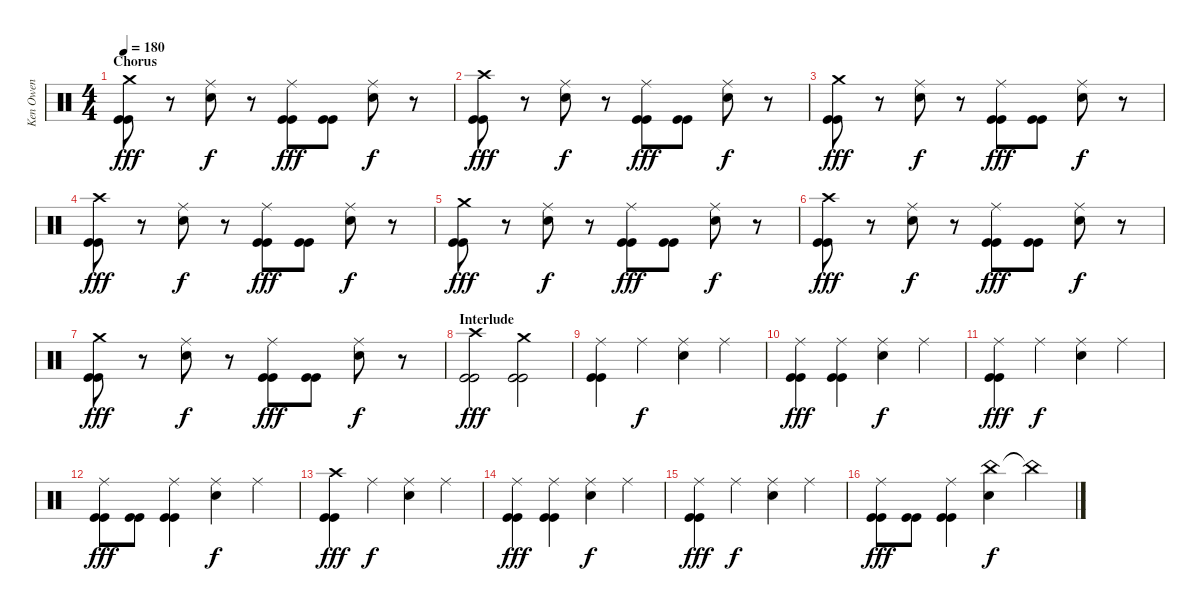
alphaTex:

\track ("Ken Owen" "Ken Owen") {instrument percussion}
\staff {score}
\articulation defaults
\ts (4 4)
\section ("" "Chorus")
\tempo 180
\clef neutral
\ks c
("Crash medium (hit)" "Kick (hit)" "Kick (hit)").8{dy fff} r.8 ("Ride (middle)" "Snare (hit) 2").8{dy f} r.8 ("Ride (middle)" "Kick (hit)" "Kick (hit)").8{dy fff} ("Kick (hit)" "Kick (hit)").8 ("Ride (middle)" "Snare (hit) 2").8{dy f} r.8 |
("Crash high (hit)" "Kick (hit)" "Kick (hit)").8{dy fff} r.8 ("Ride (middle)" "Snare (hit) 2").8{dy f} r.8 ("Ride (middle)" "Kick (hit)" "Kick (hit)").8{dy fff} ("Kick (hit)" "Kick (hit)").8 ("Ride (middle)" "Snare (hit) 2").8{dy f} r.8 |
("Crash medium (hit)" "Kick (hit)" "Kick (hit)").8{dy fff} r.8 ("Ride (middle)" "Snare (hit) 2").8{dy f} r.8 ("Ride (middle)" "Kick (hit)" "Kick (hit)").8{dy fff} ("Kick (hit)" "Kick (hit)").8 ("Ride (middle)" "Snare (hit) 2").8{dy f} r.8 |
("Crash high (hit)" "Kick (hit)" "Kick (hit)").8{dy fff} r.8 ("Ride (middle)" "Snare (hit) 2").8{dy f} r.8 ("Ride (middle)" "Kick (hit)" "Kick (hit)").8{dy fff} ("Kick (hit)" "Kick (hit)").8 ("Ride (middle)" "Snare (hit) 2").8{dy f} r.8 |
("Crash medium (hit)" "Kick (hit)" "Kick (hit)").8{dy fff} r.8 ("Ride (middle)" "Snare (hit) 2").8{dy f} r.8 ("Ride (middle)" "Kick (hit)" "Kick (hit)").8{dy fff} ("Kick (hit)" "Kick (hit)").8 ("Ride (middle)" "Snare (hit) 2").8{dy f} r.8 |
("Crash high (hit)" "Kick (hit)" "Kick (hit)").8{dy fff} r.8 ("Ride (middle)" "Snare (hit) 2").8{dy f} r.8 ("Ride (middle)" "Kick (hit)" "Kick (hit)").8{dy fff} ("Kick (hit)" "Kick (hit)").8 ("Ride (middle)" "Snare (hit) 2").8{dy f} r.8 |
("Crash medium (hit)" "Kick (hit)" "Kick (hit)").8{dy fff} r.8 ("Ride (middle)" "Snare (hit) 2").8{dy f} r.8 ("Ride (middle)" "Kick (hit)" "Kick (hit)").8{dy fff} ("Kick (hit)" "Kick (hit)").8 ("Ride (middle)" "Snare (hit) 2").8{dy f} r.8 |
\section ("" "Interlude")
("Crash high (hit)" "Kick (hit)" "Kick (hit)").2{dy fff} ("Crash medium (hit)" "Kick (hit)" "Kick (hit)").2 |
("Ride (middle)" "Kick (hit)" "Kick (hit)").4 "Ride (middle)".4{dy f} ("Ride (middle)" "Snare (hit) 2").4 "Ride (middle)".4 |
("Ride (middle)" "Kick (hit)" "Kick (hit)").4{dy fff} ("Ride (middle)" "Kick (hit)" "Kick (hit)").4 ("Ride (middle)" "Snare (hit) 2").4{dy f} "Ride (middle)".4 |
("Ride (middle)" "Kick (hit)" "Kick (hit)").4{dy fff} "Ride (middle)".4{dy f} ("Ride (middle)" "Snare (hit) 2").4 "Ride (middle)".4 |
("Ride (middle)" "Kick (hit)" "Kick (hit)").8{dy fff} ("Kick (hit)" "Kick (hit)").8 ("Ride (middle)" "Kick (hit)" "Kick (hit)").4 ("Ride (middle)" "Snare (hit) 2").4{dy f} "Ride (middle)".4 |
("Crash high (hit)" "Kick (hit)" "Kick (hit)").4{dy fff} "Ride (middle)".4{dy f} ("Ride (middle)" "Snare (hit) 2").4 "Ride (middle)".4 |
("Ride (middle)" "Kick (hit)" "Kick (hit)").4{dy fff} ("Ride (middle)" "Kick (hit)" "Kick (hit)").4 ("Ride (middle)" "Snare (hit) 2").4{dy f} "Ride (middle)".4 |
("Ride (middle)" "Kick (hit)" "Kick (hit)").4{dy fff} "Ride (middle)".4{dy f} ("Ride (middle)" "Snare (hit) 2").4 "Ride (middle)".4 |
("Ride (middle)" "Kick (hit)" "Kick (hit)").8{dy fff} ("Kick (hit)" "Kick (hit)").8 ("Ride (middle)" "Kick (hit)" "Kick (hit)").4 ("China (hit)" "Snare (hit) 2").4{dy f} "China (hit)"{t}.4
